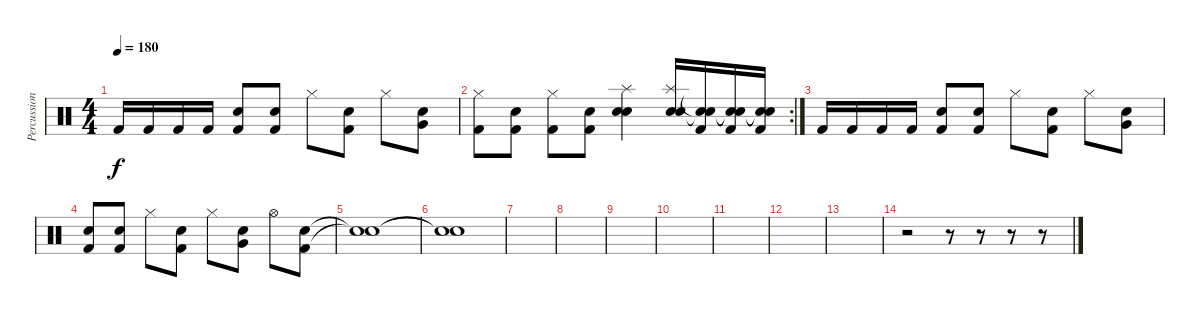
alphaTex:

\track ("Percussion" "Percussion") {instrument percussion}
\staff {score}
\articulation defaults
\ts (4 4)
\tempo 180
\clef neutral
\ks c "Kick (hit) 2".16{dy f} "Kick (hit) 2".16 "Kick (hit) 2".16 "Kick (hit) 2".16
("Electric Snare (hit)" "Kick (hit) 2").8 ("Electric Snare (hit)" "Kick (hit) 2").8 "Hi-Hat (closed)".8 ("Electric Snare (hit)" "Kick (hit) 2").8 "Hi-Hat (closed)".8 ("Electric Snare (hit)" "Very Low Tom (hit)").8 |
\rc 2
("Hi-Hat (closed)" "Kick (hit) 2").8 ("Electric Snare (hit)" "Kick (hit) 2").8 ("Hi-Hat (closed)" "Kick (hit) 2").8 ("Electric Snare (hit)" "Kick (hit) 2").8 ("Splash (hit)" "Snare (hit) 2" "Electric Snare (hit)").4 ("Splash (hit)" "Snare (hit) 2" "Electric Snare (hit)").16 ("Snare (hit)"{t} "Snare (hit)"{t} "Kick (hit) 2").16 ("Snare (hit)"{t} "Snare (hit)"{t} "Kick (hit) 2").16 ("Snare (hit)"{t} "Snare (hit)"{t} "Kick (hit) 2").16 |
"Kick (hit) 2".16 "Kick (hit) 2".16 "Kick (hit) 2".16 "Kick (hit) 2".16 ("Electric Snare (hit)" "Kick (hit) 2").8 ("Electric Snare (hit)" "Kick (hit) 2").8 "Hi-Hat (closed)".8 ("Electric Snare (hit)" "Kick (hit) 2").8 "Hi-Hat (closed)".8 ("Electric Snare (hit)" "Very Low Tom (hit)").8 |
("Electric Snare (hit)" "Kick (hit) 2").8 ("Electric Snare (hit)" "Kick (hit) 2").8 "Hi-Hat (closed)".8 ("Electric Snare (hit)" "Kick (hit) 2").8 "Hi-Hat (closed)".8 ("Electric Snare (hit)" "Very Low Tom (hit)").8 "Hi-Hat (open)".8 ("Electric Snare (hit)" "Kick (hit) 2").8 |
("Snare (hit)"{t} "Snare (hit)"{t}).1 |
("Snare (hit)"{t} "Snare (hit)"{t}).1 |
|
|
|
|
|
|
|
r.2 r.8 r.8 r.8 r.8
